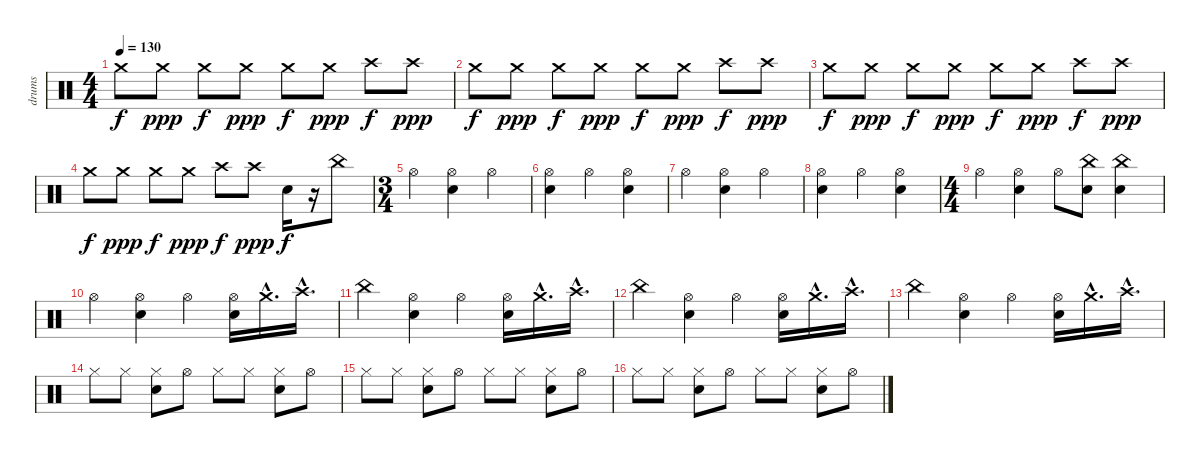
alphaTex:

\track ("drums" "drums") {instrument percussion}
\staff {score}
\articulation defaults
\ts (4 4)
\tempo 130
\clef neutral
\ks c "Crash medium (hit)".8{dy f} "Crash medium (hit)".8{dy ppp} "Crash medium (hit)".8{dy f} "Crash medium (hit)".8{dy ppp} "Crash medium (hit)".8{dy f} "Crash medium (hit)".8{dy ppp} "Crash high (hit)".8{dy f} "Crash high (hit)".8{dy ppp}
|
"Crash medium (hit)".8{dy f} "Crash medium (hit)".8{dy ppp} "Crash medium (hit)".8{dy f} "Crash medium (hit)".8{dy ppp} "Crash medium (hit)".8{dy f} "Crash medium (hit)".8{dy ppp} "Crash high (hit)".8{dy f} "Crash high (hit)".8{dy ppp} |
"Crash medium (hit)".8{dy f} "Crash medium (hit)".8{dy ppp} "Crash medium (hit)".8{dy f} "Crash medium (hit)".8{dy ppp} "Crash medium (hit)".8{dy f} "Crash medium (hit)".8{dy ppp} "Crash high (hit)".8{dy f} "Crash high (hit)".8{dy ppp} |
"Crash medium (hit)".8{dy f} "Crash medium (hit)".8{dy ppp} "Crash medium (hit)".8{dy f} "Crash medium (hit)".8{dy ppp} "Crash high (hit)".8{dy f} "Crash high (hit)".8{dy ppp} "Snare (hit) 2".16{dy f} r.16 "China (hit)".8 |
\ts (3 4)
"Hi-Hat (open)".4 ("Snare (hit) 2" "Hi-Hat (open)").4 "Hi-Hat (open)".4 |
("Snare (hit) 2" "Hi-Hat (open)").4 "Hi-Hat (open)".4 ("Snare (hit) 2" "Hi-Hat (open)").4 |
"Hi-Hat (open)".4 ("Snare (hit) 2" "Hi-Hat (open)").4 "Hi-Hat (open)".4 |
("Snare (hit) 2" "Hi-Hat (open)").4 "Hi-Hat (open)".4 ("Snare (hit) 2" "Hi-Hat (open)").4 |
\ts (4 4)
"Hi-Hat (open)".4 ("Snare (hit) 2" "Hi-Hat (open)").4 "Hi-Hat (open)".8 ("China (hit)" "Snare (hit) 2").8 ("China (hit)" "Snare (hit) 2").4 |
"Hi-Hat (open)".4 ("Snare (hit) 2" "Hi-Hat (open)").4 "Hi-Hat (open)".4 ("Snare (hit) 2" "Hi-Hat (open)").16 "Crash medium (hit)"{hac}.16{d} "Crash high (hit)"{hac}.16{d} |
"China (hit)".4 ("Snare (hit) 2" "Hi-Hat (open)").4 "Hi-Hat (open)".4 ("Snare (hit) 2" "Hi-Hat (open)").16 "Crash medium (hit)"{hac}.16{d} "Crash high (hit)"{hac}.16{d} |
"China (hit)".4 ("Snare (hit) 2" "Hi-Hat (open)").4 "Hi-Hat (open)".4 ("Snare (hit) 2" "Hi-Hat (open)").16 "Crash medium (hit)"{hac}.16{d} "Crash high (hit)"{hac}.16{d} |
"China (hit)".4 ("Snare (hit) 2" "Hi-Hat (open)").4 "Hi-Hat (open)".4 ("Snare (hit) 2" "Hi-Hat (open)").16 "Crash medium (hit)"{hac}.16{d} "Crash high (hit)"{hac}.16{d} |
"Hi-Hat (closed)".8 "Hi-Hat (closed)".8 ("Snare (hit) 2" "Hi-Hat (closed)").8 "Hi-Hat (open)".8 "Hi-Hat (closed)".8 "Hi-Hat (closed)".8 ("Snare (hit) 2" "Hi-Hat (closed)").8 "Hi-Hat (open)".8 |
"Hi-Hat (closed)".8 "Hi-Hat (closed)".8 ("Snare (hit) 2" "Hi-Hat (closed)").8 "Hi-Hat (open)".8 "Hi-Hat (closed)".8 "Hi-Hat (closed)".8 ("Snare (hit) 2" "Hi-Hat (closed)").8 "Hi-Hat (open)".8 |
"Hi-Hat (closed)".8 "Hi-Hat (closed)".8 ("Snare (hit) 2" "Hi-Hat (closed)").8 "Hi-Hat (open)".8 "Hi-Hat (closed)".8 "Hi-Hat (closed)".8 ("Snare (hit) 2" "Hi-Hat (closed)").8 "Hi-Hat (open)".8
